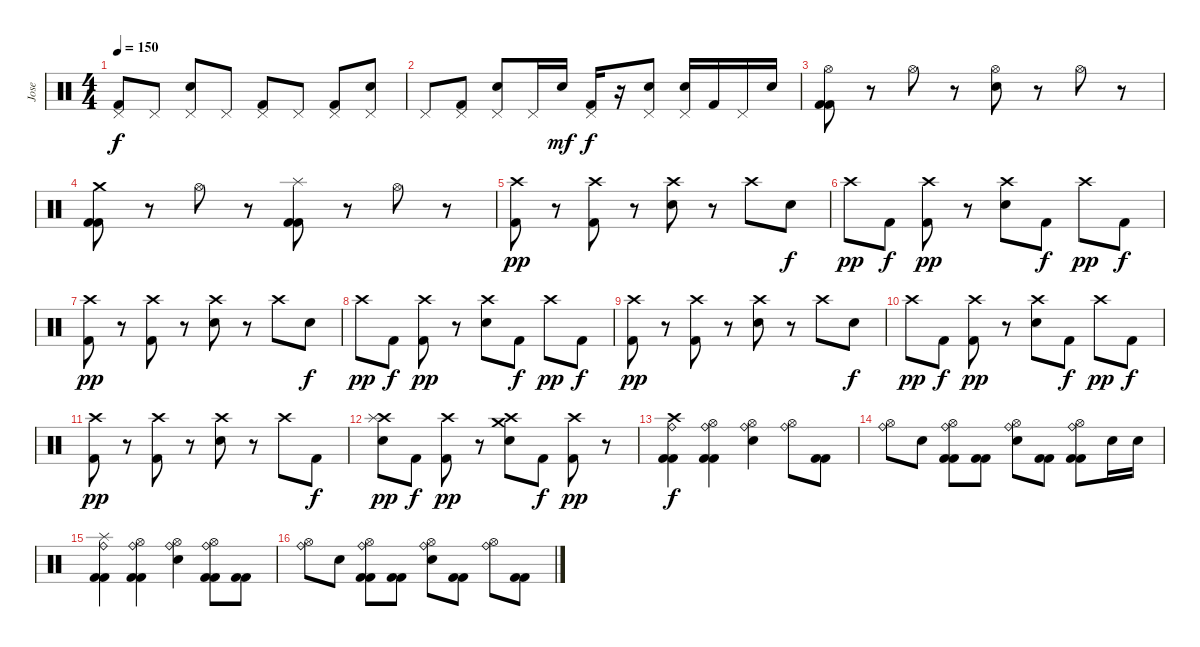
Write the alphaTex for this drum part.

\track ("Jose" "Jose") {instrument percussion}
\staff {score}
\articulation defaults
\ts (4 4)
\tempo 150
\clef neutral
\ks c
("Pedal Hi-Hat (hit)" "Kick (hit) 2").8{dy f} "Pedal Hi-Hat (hit)".8 ("Pedal Hi-Hat (hit)" "Electric Snare (hit)").8 "Pedal Hi-Hat (hit)".8 ("Pedal Hi-Hat (hit)" "Kick (hit) 2").8 "Pedal Hi-Hat (hit)".8 ("Pedal Hi-Hat (hit)" "Kick (hit) 2").8 ("Pedal Hi-Hat (hit)" "Electric Snare (hit)").8 |
"Pedal Hi-Hat (hit)".8 ("Pedal Hi-Hat (hit)" "Kick (hit) 2").8 ("Pedal Hi-Hat (hit)" "Electric Snare (hit)").8 "Pedal Hi-Hat (hit)".16 "Electric Snare (hit)".16{dy mf} ("Pedal Hi-Hat (hit)" "Kick (hit) 2").16{dy f} r.16 ("Pedal Hi-Hat (hit)" "Electric Snare (hit)").8 ("Pedal Hi-Hat (hit)" "Electric Snare (hit)").16 "Kick (hit) 2".16 "Pedal Hi-Hat (hit)".16 "Electric Snare (hit)".16 |
("Hi-Hat (open)" "Kick (hit) 2" "Kick (hit) 2").8 r.8 "Hi-Hat (open)".8 r.8 ("Hi-Hat (open)" "Electric Snare (hit)").8 r.8 "Hi-Hat (open)".8 r.8 |
("Crash medium (hit)" "Kick (hit) 2" "Kick (hit) 2").8 r.8 "Hi-Hat (open)".8 r.8 ("Splash (hit)" "Kick (hit) 2" "Kick (hit) 2").8 r.8 "Hi-Hat (open)".8 r.8 |
("Crash high (hit)" "Kick (hit) 2").8{dy pp} r.8 ("Crash high (hit)" "Kick (hit) 2").8 r.8 ("Crash high (hit)" "Electric Snare (hit)").8 r.8 "Crash high (hit)".8 "Electric Snare (hit)".8{dy f} |
"Crash high (hit)".8{dy pp} "Kick (hit) 2".8{dy f} ("Crash high (hit)" "Kick (hit) 2").8{dy pp} r.8 ("Crash high (hit)" "Electric Snare (hit)").8 "Kick (hit) 2".8{dy f} "Crash high (hit)".8{dy pp} "Kick (hit) 2".8{dy f} |
("Crash high (hit)" "Kick (hit) 2").8{dy pp} r.8 ("Crash high (hit)" "Kick (hit) 2").8 r.8 ("Crash high (hit)" "Electric Snare (hit)").8 r.8 "Crash high (hit)".8 "Electric Snare (hit)".8{dy f} |
"Crash high (hit)".8{dy pp} "Kick (hit) 2".8{dy f} ("Crash high (hit)" "Kick (hit) 2").8{dy pp} r.8 ("Crash high (hit)" "Electric Snare (hit)").8 "Kick (hit) 2".8{dy f} "Crash high (hit)".8{dy pp} "Kick (hit) 2".8{dy f} |
("Crash high (hit)" "Kick (hit) 2").8{dy pp} r.8 ("Crash high (hit)" "Kick (hit) 2").8 r.8 ("Crash high (hit)" "Electric Snare (hit)").8 r.8 "Crash high (hit)".8 "Electric Snare (hit)".8{dy f} |
"Crash high (hit)".8{dy pp} "Kick (hit) 2".8{dy f} ("Crash high (hit)" "Kick (hit) 2").8{dy pp} r.8 ("Crash high (hit)" "Electric Snare (hit)").8 "Kick (hit) 2".8{dy f} "Crash high (hit)".8{dy pp} "Kick (hit) 2".8{dy f} |
("Crash high (hit)" "Kick (hit) 2").8{dy pp} r.8 ("Crash high (hit)" "Kick (hit) 2").8 r.8 ("Crash high (hit)" "Electric Snare (hit)").8 r.8 "Crash high (hit)".8 "Kick (hit) 2".8{dy f} |
("Crash high (hit)" "Splash (hit)" "Electric Snare (hit)").8{dy pp} "Kick (hit) 2".8{dy f} ("Crash high (hit)" "Kick (hit) 2").8{dy pp} r.8 ("Crash high (hit)" "Crash medium (hit)" "Electric Snare (hit)").8 "Kick (hit) 2".8{dy f} ("Crash high (hit)" "Kick (hit) 2").8{dy pp} r.8 |
("Ride (bell)" "Crash high (hit)" "Kick (hit) 2" "Kick (hit) 2").4{dy f} ("Ride (bell)" "Hi-Hat (open)" "Kick (hit) 2" "Kick (hit) 2").4 ("Ride (bell)" "Hi-Hat (open)" "Electric Snare (hit)").4 ("Ride (bell)" "Hi-Hat (open)").8 ("Kick (hit) 2" "Kick (hit) 2").8 |
("Ride (bell)" "Hi-Hat (open)").8 "Electric Snare (hit)".8 ("Ride (bell)" "Hi-Hat (open)" "Kick (hit) 2" "Kick (hit) 2").8 ("Kick (hit) 2" "Kick (hit) 2").8 ("Ride (bell)" "Hi-Hat (open)" "Electric Snare (hit)").8 ("Kick (hit) 2" "Kick (hit) 2").8 ("Ride (bell)" "Hi-Hat (open)" "Kick (hit) 2" "Kick (hit) 2").8 "Electric Snare (hit)".16 "Electric Snare (hit)".16 |
("Ride (bell)" "Splash (hit)" "Kick (hit) 2" "Kick (hit) 2").4 ("Ride (bell)" "Hi-Hat (open)" "Kick (hit) 2" "Kick (hit) 2").4 ("Ride (bell)" "Hi-Hat (open)" "Electric Snare (hit)").4 ("Ride (bell)" "Hi-Hat (open)" "Kick (hit) 2" "Kick (hit) 2").8 ("Kick (hit) 2" "Kick (hit) 2").8 |
("Ride (bell)" "Hi-Hat (open)").8 "Electric Snare (hit)".8 ("Ride (bell)" "Hi-Hat (open)" "Kick (hit) 2" "Kick (hit) 2").8 ("Kick (hit) 2" "Kick (hit) 2").8 ("Ride (bell)" "Hi-Hat (open)" "Electric Snare (hit)").8 ("Kick (hit) 2" "Kick (hit) 2").8 ("Ride (bell)" "Hi-Hat (open)").8 ("Kick (hit) 2" "Kick (hit) 2").8
